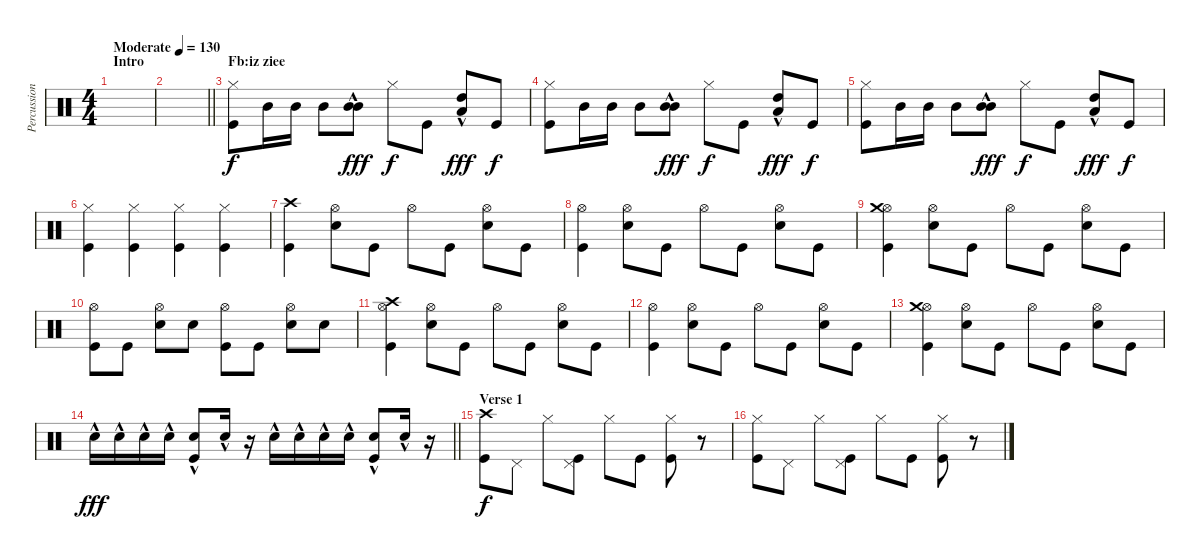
\track ("Percussion 1" "Percussion") {instrument percussion}
\staff {score}
\articulation defaults
\ts (4 4)
\section ("" "Intro")
\tempo (130 "Moderate")
\clef neutral
\ks c
|
\barLineRight lightlight
|
\section ("" "Fb:iz ziee")
("Hi-Hat (closed)" "Kick (hit)").8 "Mid Tom (hit)".16 "Mid Tom (hit)".16 "Mid Tom (hit)".8 ("Mid Tom (hit)"{hac} "Mid Tom (hit)"{hac}).8{bd 30 dy fff} "Hi-Hat (closed)".8{dy f} "Kick (hit)".8 ("Low Tom (hit)"{hac} "High Tom (hit)"{hac}).8{bd 60 dy fff} "Kick (hit)".8{dy f} |
("Hi-Hat (closed)" "Kick (hit)").8 "Mid Tom (hit)".16 "Mid Tom (hit)".16 "Mid Tom (hit)".8 ("Mid Tom (hit)"{hac} "Mid Tom (hit)"{hac}).8{bd 30 dy fff} "Hi-Hat (closed)".8{dy f} "Kick (hit)".8 ("Low Tom (hit)"{hac} "High Tom (hit)"{hac}).8{bd 60 dy fff} "Kick (hit)".8{dy f} |
("Hi-Hat (closed)" "Kick (hit)").8 "Mid Tom (hit)".16 "Mid Tom (hit)".16 "Mid Tom (hit)".8 ("Mid Tom (hit)"{hac} "Mid Tom (hit)"{hac}).8{bd 30 dy fff} "Hi-Hat (closed)".8{dy f} "Kick (hit)".8 ("Low Tom (hit)"{hac} "High Tom (hit)"{hac}).8{bd 60 dy fff} "Kick (hit)".8{dy f} |
("Hi-Hat (closed)" "Kick (hit)").4 ("Hi-Hat (closed)" "Kick (hit)").4 ("Hi-Hat (closed)" "Kick (hit)").4 ("Hi-Hat (closed)" "Kick (hit)").4 |
("Crash high (hit)" "Kick (hit)").4 ("Hi-Hat (open)" "Electric Snare (hit)").8 "Kick (hit)".8 "Hi-Hat (open)".8 "Kick (hit)".8 ("Hi-Hat (open)" "Electric Snare (hit)").8 "Kick (hit)".8 |
("Hi-Hat (open)" "Kick (hit)").4 ("Hi-Hat (open)" "Electric Snare (hit)").8 "Kick (hit)".8 "Hi-Hat (open)".8 "Kick (hit)".8 ("Hi-Hat (open)" "Electric Snare (hit)").8 "Kick (hit)".8 |
("Hi-Hat (open)" "Crash medium (hit)" "Kick (hit)").4 ("Hi-Hat (open)" "Electric Snare (hit)").8 "Kick (hit)".8 "Hi-Hat (open)".8 "Kick (hit)".8 ("Hi-Hat (open)" "Electric Snare (hit)").8 "Kick (hit)".8 |
("Hi-Hat (open)" "Kick (hit)").8 "Kick (hit)".8 ("Hi-Hat (open)" "Electric Snare (hit)").8 "Electric Snare (hit)".8 ("Hi-Hat (open)" "Kick (hit)").8 "Kick (hit)".8 ("Hi-Hat (open)" "Electric Snare (hit)").8 "Electric Snare (hit)".8 |
("Hi-Hat (open)" "Crash high (hit)" "Kick (hit)").4 ("Hi-Hat (open)" "Electric Snare (hit)").8 "Kick (hit)".8 "Hi-Hat (open)".8 "Kick (hit)".8 ("Hi-Hat (open)" "Electric Snare (hit)").8 "Kick (hit)".8 |
("Hi-Hat (open)" "Kick (hit)").4 ("Hi-Hat (open)" "Electric Snare (hit)").8 "Kick (hit)".8 "Hi-Hat (open)".8 "Kick (hit)".8 ("Hi-Hat (open)" "Electric Snare (hit)").8 "Kick (hit)".8 |
("Hi-Hat (open)" "Crash medium (hit)" "Kick (hit)").4 ("Hi-Hat (open)" "Electric Snare (hit)").8 "Kick (hit)".8 "Hi-Hat (open)".8 "Kick (hit)".8 ("Hi-Hat (open)" "Electric Snare (hit)").8 "Kick (hit)".8 |
\barLineRight lightlight "Electric Snare (hit)"{hac}.16{dy fff} "Electric Snare (hit)"{hac}.16 "Electric Snare (hit)"{hac}.16 "Electric Snare (hit)"{hac}.16
("Electric Snare (hit)"{hac} "Kick (hit)"{hac}).8 "Electric Snare (hit)"{hac}.16 r.16 "Electric Snare (hit)"{hac}.16 "Electric Snare (hit)"{hac}.16 "Electric Snare (hit)"{hac}.16 "Electric Snare (hit)"{hac}.16 ("Electric Snare (hit)"{hac} "Kick (hit)"{hac}).8 "Electric Snare (hit)"{hac}.16 r.16 |
\section ("" "Verse 1")
("Crash high (hit)" "Kick (hit)").8{dy f} "Pedal Hi-Hat (hit)".8 "Hi-Hat (closed)".8 ("Pedal Hi-Hat (hit)" "Kick (hit)").8 "Hi-Hat (closed)".8 "Kick (hit)".8 ("Hi-Hat (closed)" "Kick (hit)").8 r.8 |
("Hi-Hat (closed)" "Kick (hit)").8 "Pedal Hi-Hat (hit)".8 "Hi-Hat (closed)".8 ("Pedal Hi-Hat (hit)" "Kick (hit)").8 "Hi-Hat (closed)".8 "Kick (hit)".8 ("Hi-Hat (closed)" "Kick (hit)").8 r.8
